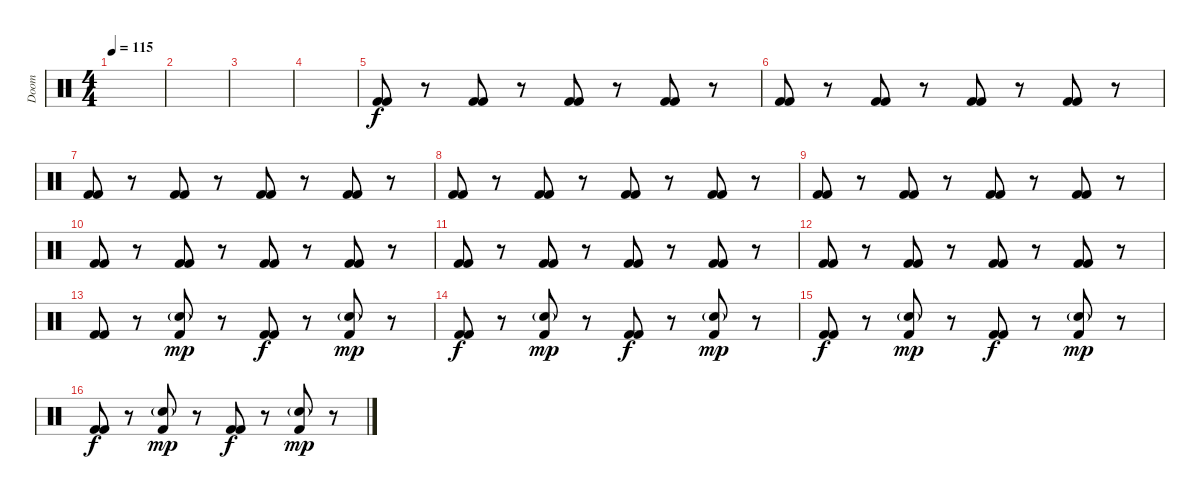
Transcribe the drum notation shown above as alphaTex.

\track ("Doom" "Doom") {instrument percussion}
\staff {score}
\articulation defaults
\ts (4 4)
\tempo 115
\clef neutral
\ks c
|
|
|
|
("Kick (hit) 2" "Kick (hit) 2").8 r.8 ("Kick (hit) 2" "Kick (hit) 2").8 r.8 ("Kick (hit) 2" "Kick (hit) 2").8 r.8 ("Kick (hit) 2" "Kick (hit) 2").8 r.8 |
("Kick (hit) 2" "Kick (hit) 2").8 r.8 ("Kick (hit) 2" "Kick (hit) 2").8 r.8 ("Kick (hit) 2" "Kick (hit) 2").8 r.8 ("Kick (hit) 2" "Kick (hit) 2").8 r.8 |
("Kick (hit) 2" "Kick (hit) 2").8 r.8 ("Kick (hit) 2" "Kick (hit) 2").8 r.8 ("Kick (hit) 2" "Kick (hit) 2").8 r.8 ("Kick (hit) 2" "Kick (hit) 2").8 r.8 |
("Kick (hit) 2" "Kick (hit) 2").8 r.8 ("Kick (hit) 2" "Kick (hit) 2").8 r.8 ("Kick (hit) 2" "Kick (hit) 2").8 r.8 ("Kick (hit) 2" "Kick (hit) 2").8 r.8 |
("Kick (hit) 2" "Kick (hit) 2").8 r.8 ("Kick (hit) 2" "Kick (hit) 2").8 r.8 ("Kick (hit) 2" "Kick (hit) 2").8 r.8 ("Kick (hit) 2" "Kick (hit) 2").8 r.8 |
("Kick (hit) 2" "Kick (hit) 2").8 r.8 ("Kick (hit) 2" "Kick (hit) 2").8 r.8 ("Kick (hit) 2" "Kick (hit) 2").8 r.8 ("Kick (hit) 2" "Kick (hit) 2").8 r.8 |
("Kick (hit) 2" "Kick (hit) 2").8 r.8 ("Kick (hit) 2" "Kick (hit) 2").8 r.8 ("Kick (hit) 2" "Kick (hit) 2").8 r.8 ("Kick (hit) 2" "Kick (hit) 2").8 r.8 |
("Kick (hit) 2" "Kick (hit) 2").8 r.8 ("Kick (hit) 2" "Kick (hit) 2").8 r.8 ("Kick (hit) 2" "Kick (hit) 2").8 r.8 ("Kick (hit) 2" "Kick (hit) 2").8 r.8 |
("Kick (hit) 2" "Kick (hit) 2").8 r.8 ("Electric Snare (hit)"{g} "Kick (hit) 2").8{dy mp} r.8 ("Kick (hit) 2" "Kick (hit) 2").8{dy f} r.8 ("Electric Snare (hit)"{g} "Kick (hit) 2").8{dy mp} r.8 |
("Kick (hit) 2" "Kick (hit) 2").8{dy f} r.8 ("Electric Snare (hit)"{g} "Kick (hit) 2").8{dy mp} r.8 ("Kick (hit) 2" "Kick (hit) 2").8{dy f} r.8 ("Electric Snare (hit)"{g} "Kick (hit) 2").8{dy mp} r.8 |
("Kick (hit) 2" "Kick (hit) 2").8{dy f} r.8 ("Electric Snare (hit)"{g} "Kick (hit) 2").8{dy mp} r.8 ("Kick (hit) 2" "Kick (hit) 2").8{dy f} r.8 ("Electric Snare (hit)"{g} "Kick (hit) 2").8{dy mp} r.8 |
("Kick (hit) 2" "Kick (hit) 2").8{dy f} r.8 ("Electric Snare (hit)"{g} "Kick (hit) 2").8{dy mp} r.8 ("Kick (hit) 2" "Kick (hit) 2").8{dy f} r.8 ("Electric Snare (hit)"{g} "Kick (hit) 2").8{dy mp} r.8
